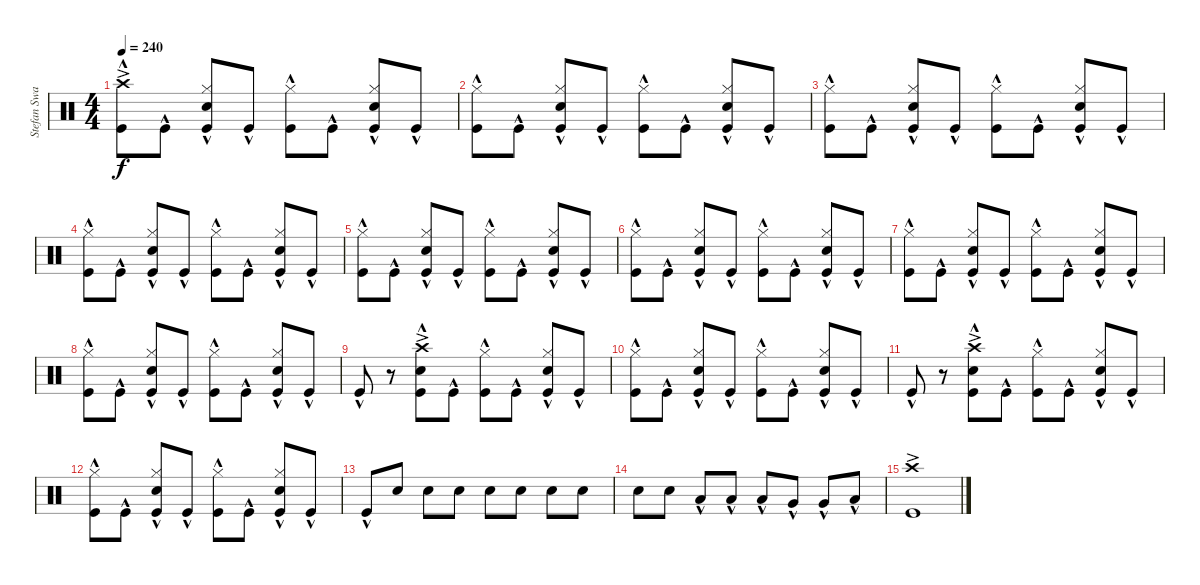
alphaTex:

\track ("Stefan Swarztmann" "Stefan Swa") {instrument percussion}
\staff {score}
\articulation defaults
\ts (4 4)
\tempo 240
\clef neutral
\ks c
("Crash high (hit)"{ac} "Kick (hit)"{hac}).8{dy f} "Kick (hit)"{hac}.8 ("Hi-Hat (closed)" "Snare (hit) 2" "Kick (hit)"{hac}).8 "Kick (hit)"{hac}.8 ("Hi-Hat (closed)" "Kick (hit)"{hac}).8 "Kick (hit)"{hac}.8 ("Hi-Hat (closed)" "Snare (hit) 2" "Kick (hit)"{hac}).8 "Kick (hit)"{hac}.8 |
("Hi-Hat (closed)" "Kick (hit)"{hac}).8 "Kick (hit)"{hac}.8 ("Hi-Hat (closed)" "Snare (hit) 2" "Kick (hit)"{hac}).8 "Kick (hit)"{hac}.8 ("Hi-Hat (closed)" "Kick (hit)"{hac}).8 "Kick (hit)"{hac}.8 ("Hi-Hat (closed)" "Snare (hit) 2" "Kick (hit)"{hac}).8 "Kick (hit)"{hac}.8 |
("Hi-Hat (closed)" "Kick (hit)"{hac}).8 "Kick (hit)"{hac}.8 ("Hi-Hat (closed)" "Snare (hit) 2" "Kick (hit)"{hac}).8 "Kick (hit)"{hac}.8 ("Hi-Hat (closed)" "Kick (hit)"{hac}).8 "Kick (hit)"{hac}.8 ("Hi-Hat (closed)" "Snare (hit) 2" "Kick (hit)"{hac}).8 "Kick (hit)"{hac}.8 |
("Hi-Hat (closed)" "Kick (hit)"{hac}).8 "Kick (hit)"{hac}.8 ("Hi-Hat (closed)" "Snare (hit) 2" "Kick (hit)"{hac}).8 "Kick (hit)"{hac}.8 ("Hi-Hat (closed)" "Kick (hit)"{hac}).8 "Kick (hit)"{hac}.8 ("Hi-Hat (closed)" "Snare (hit) 2" "Kick (hit)"{hac}).8 "Kick (hit)"{hac}.8 |
("Hi-Hat (closed)" "Kick (hit)"{hac}).8 "Kick (hit)"{hac}.8 ("Hi-Hat (closed)" "Snare (hit) 2" "Kick (hit)"{hac}).8 "Kick (hit)"{hac}.8 ("Hi-Hat (closed)" "Kick (hit)"{hac}).8 "Kick (hit)"{hac}.8 ("Hi-Hat (closed)" "Snare (hit) 2" "Kick (hit)"{hac}).8 "Kick (hit)"{hac}.8 |
("Hi-Hat (closed)" "Kick (hit)"{hac}).8 "Kick (hit)"{hac}.8 ("Hi-Hat (closed)" "Snare (hit) 2" "Kick (hit)"{hac}).8 "Kick (hit)"{hac}.8 ("Hi-Hat (closed)" "Kick (hit)"{hac}).8 "Kick (hit)"{hac}.8 ("Hi-Hat (closed)" "Snare (hit) 2" "Kick (hit)"{hac}).8 "Kick (hit)"{hac}.8 |
("Hi-Hat (closed)" "Kick (hit)"{hac}).8 "Kick (hit)"{hac}.8 ("Hi-Hat (closed)" "Snare (hit) 2" "Kick (hit)"{hac}).8 "Kick (hit)"{hac}.8 ("Hi-Hat (closed)" "Kick (hit)"{hac}).8 "Kick (hit)"{hac}.8 ("Hi-Hat (closed)" "Snare (hit) 2" "Kick (hit)"{hac}).8 "Kick (hit)"{hac}.8 |
("Hi-Hat (closed)" "Kick (hit)"{hac}).8 "Kick (hit)"{hac}.8 ("Hi-Hat (closed)" "Snare (hit) 2" "Kick (hit)"{hac}).8 "Kick (hit)"{hac}.8 ("Hi-Hat (closed)" "Kick (hit)"{hac}).8 "Kick (hit)"{hac}.8 ("Hi-Hat (closed)" "Snare (hit) 2" "Kick (hit)"{hac}).8 "Kick (hit)"{hac}.8 |
"Kick (hit)"{hac}.8 r.8 ("Crash high (hit)"{ac} "Snare (hit) 2" "Kick (hit)"{hac}).8 "Kick (hit)"{hac}.8 ("Hi-Hat (closed)" "Kick (hit)"{hac}).8 "Kick (hit)"{hac}.8 ("Hi-Hat (closed)" "Snare (hit) 2" "Kick (hit)"{hac}).8 "Kick (hit)"{hac}.8 |
("Hi-Hat (closed)" "Kick (hit)"{hac}).8 "Kick (hit)"{hac}.8 ("Hi-Hat (closed)" "Snare (hit) 2" "Kick (hit)"{hac}).8 "Kick (hit)"{hac}.8 ("Hi-Hat (closed)" "Kick (hit)"{hac}).8 "Kick (hit)"{hac}.8 ("Hi-Hat (closed)" "Snare (hit) 2" "Kick (hit)"{hac}).8 "Kick (hit)"{hac}.8 |
"Kick (hit)"{hac}.8 r.8 ("Crash high (hit)"{ac} "Snare (hit) 2" "Kick (hit)"{hac}).8 "Kick (hit)"{hac}.8 ("Hi-Hat (closed)" "Kick (hit)"{hac}).8 "Kick (hit)"{hac}.8 ("Hi-Hat (closed)" "Snare (hit) 2" "Kick (hit)"{hac}).8 "Kick (hit)"{hac}.8 |
("Hi-Hat (closed)" "Kick (hit)"{hac}).8 "Kick (hit)"{hac}.8 ("Hi-Hat (closed)" "Snare (hit) 2" "Kick (hit)"{hac}).8 "Kick (hit)"{hac}.8 ("Hi-Hat (closed)" "Kick (hit)"{hac}).8 "Kick (hit)"{hac}.8 ("Hi-Hat (closed)" "Snare (hit) 2" "Kick (hit)"{hac}).8 "Kick (hit)"{hac}.8 |
"Kick (hit)"{hac}.8 "Snare (hit) 2".8 "Snare (hit) 2".8 "Snare (hit) 2".8 "Snare (hit) 2".8 "Snare (hit) 2".8 "Snare (hit) 2".8 "Snare (hit) 2".8 |
"Snare (hit) 2".8 "Snare (hit) 2".8 "Low Tom (hit)"{hac}.8 "Low Tom (hit)"{hac}.8 "Low Tom (hit)"{hac}.8 "Very Low Tom (hit)"{hac}.8 "Very Low Tom (hit)"{hac}.8 "Low Floor Tom (hit)"{hac}.8 |
("Crash high (hit)"{ac} "Kick (hit)").1
